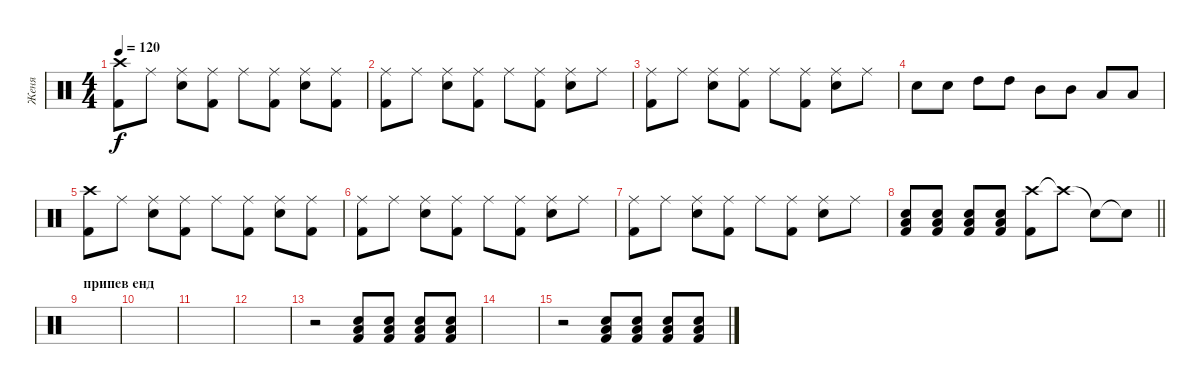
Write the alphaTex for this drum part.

\track ("Женя" "Женя") {instrument percussion}
\staff {score}
\articulation defaults
\ts (4 4)
\tempo 120
\clef neutral
\ks c
("Crash high (hit)" "Kick (hit) 2").8{dy f} "Ride (middle)".8 ("Ride (middle)" "Snare (hit) 2").8 ("Ride (middle)" "Kick (hit) 2").8 "Ride (middle)".8 ("Ride (middle)" "Kick (hit) 2").8 ("Ride (middle)" "Snare (hit) 2").8 ("Ride (middle)" "Kick (hit) 2").8 |
("Ride (middle)" "Kick (hit) 2").8 "Ride (middle)".8 ("Ride (middle)" "Snare (hit) 2").8 ("Ride (middle)" "Kick (hit) 2").8 "Ride (middle)".8 ("Ride (middle)" "Kick (hit) 2").8 ("Ride (middle)" "Snare (hit) 2").8 "Ride (middle)".8 |
("Ride (middle)" "Kick (hit) 2").8 "Ride (middle)".8 ("Ride (middle)" "Snare (hit) 2").8 ("Ride (middle)" "Kick (hit) 2").8 "Ride (middle)".8 ("Ride (middle)" "Kick (hit) 2").8 ("Ride (middle)" "Snare (hit) 2").8 "Ride (middle)".8 |
"Snare (hit) 2".8 "Snare (hit) 2".8 "High Tom (hit)".8 "High Tom (hit)".8 "Mid Tom (hit)".8 "Mid Tom (hit)".8 "Low Tom (hit)".8 "Low Tom (hit)".8 |
("Crash high (hit)" "Kick (hit) 2").8 "Ride (middle)".8 ("Ride (middle)" "Snare (hit) 2").8 ("Ride (middle)" "Kick (hit) 2").8 "Ride (middle)".8 ("Ride (middle)" "Kick (hit) 2").8 ("Ride (middle)" "Snare (hit) 2").8 ("Ride (middle)" "Kick (hit) 2").8 |
("Ride (middle)" "Kick (hit) 2").8 "Ride (middle)".8 ("Ride (middle)" "Snare (hit) 2").8 ("Ride (middle)" "Kick (hit) 2").8 "Ride (middle)".8 ("Ride (middle)" "Kick (hit) 2").8 ("Ride (middle)" "Snare (hit) 2").8 "Ride (middle)".8 |
("Ride (middle)" "Kick (hit) 2").8 "Ride (middle)".8 ("Ride (middle)" "Snare (hit) 2").8 ("Ride (middle)" "Kick (hit) 2").8 "Ride (middle)".8 ("Ride (middle)" "Kick (hit) 2").8 ("Ride (middle)" "Snare (hit) 2").8 "Ride (middle)".8 |
\barLineRight lightlight
("Low Tom (hit)" "Kick (hit) 2" "Snare (hit) 2").8 ("Low Tom (hit)" "Kick (hit) 2" "Snare (hit) 2").8 ("Low Tom (hit)" "Kick (hit) 2" "Snare (hit) 2").8 ("Low Tom (hit)" "Kick (hit) 2" "Snare (hit) 2").8 ("Crash high (hit)" "Kick (hit) 2").8 "Crash high (hit)"{t}.8 "Snare (hit)"{t}.8 "Snare (hit)"{t}.8 |
\section ("" "припев енд")
|
|
|
|
r.2 ("Low Tom (hit)" "Snare (hit) 2" "Kick (hit) 2").8 ("Low Tom (hit)" "Snare (hit) 2" "Kick (hit) 2").8 ("Low Tom (hit)" "Snare (hit) 2" "Kick (hit) 2").8 ("Low Tom (hit)" "Snare (hit) 2" "Kick (hit) 2").8 |
|
r.2 ("Low Tom (hit)" "Snare (hit) 2" "Kick (hit) 2").8 ("Low Tom (hit)" "Snare (hit) 2" "Kick (hit) 2").8 ("Low Tom (hit)" "Snare (hit) 2" "Kick (hit) 2").8 ("Low Tom (hit)" "Snare (hit) 2" "Kick (hit) 2").8
